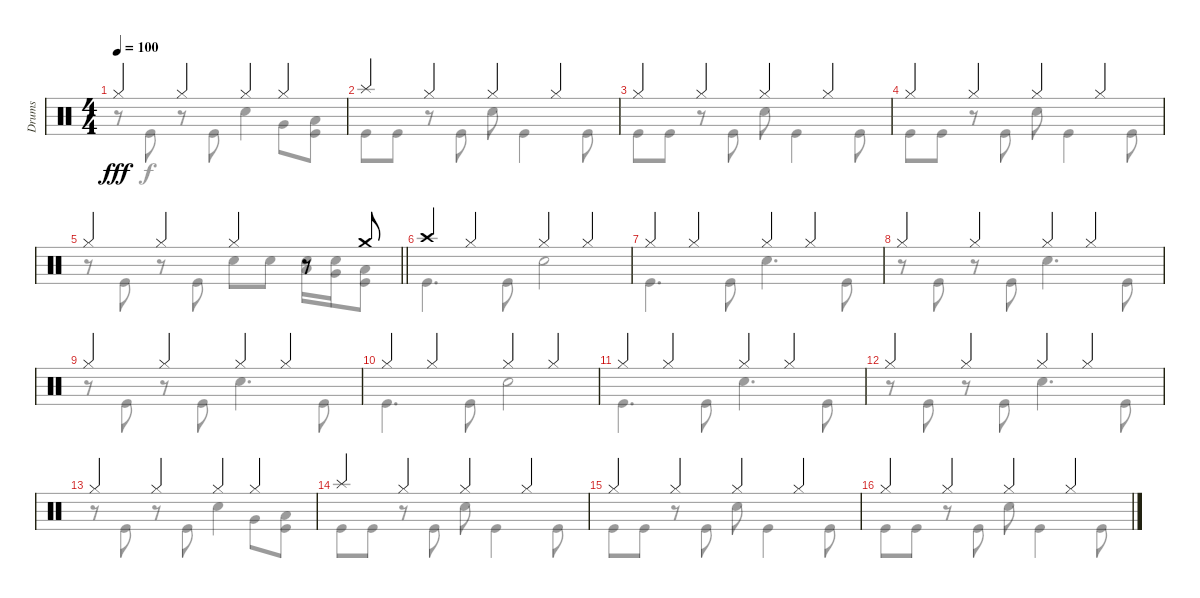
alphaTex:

\track ("Drums" "Drums") {instrument percussion}
\staff {score}
\articulation defaults
\voice
\ts (4 4)
\tempo 100
\clef neutral
\ks c "Hi-Hat (closed)".4{dy fff} "Hi-Hat (closed)".4 "Hi-Hat (closed)".4 "Hi-Hat (closed)".4
|
"Splash (hit)".4 "Hi-Hat (closed)".4 "Hi-Hat (closed)".4 "Hi-Hat (closed)".4 |
"Hi-Hat (closed)".4 "Hi-Hat (closed)".4 "Hi-Hat (closed)".4 "Hi-Hat (closed)".4 |
"Hi-Hat (closed)".4 "Hi-Hat (closed)".4 "Hi-Hat (closed)".4 "Hi-Hat (closed)".4 |
\barLineRight lightlight "Hi-Hat (closed)".4 "Hi-Hat (closed)".4 "Hi-Hat (closed)".4
r.8 "Crash medium (hit)".8 |
"Crash high (hit)".4 "Hi-Hat (closed)".4 "Hi-Hat (closed)".4 "Hi-Hat (closed)".4 |
"Hi-Hat (closed)".4 "Hi-Hat (closed)".4 "Hi-Hat (closed)".4 "Hi-Hat (closed)".4 |
"Hi-Hat (closed)".4 "Hi-Hat (closed)".4 "Hi-Hat (closed)".4 "Hi-Hat (closed)".4 |
"Hi-Hat (closed)".4 "Hi-Hat (closed)".4 "Hi-Hat (closed)".4 "Hi-Hat (closed)".4 |
"Hi-Hat (closed)".4 "Hi-Hat (closed)".4 "Hi-Hat (closed)".4 "Hi-Hat (closed)".4 |
"Hi-Hat (closed)".4 "Hi-Hat (closed)".4 "Hi-Hat (closed)".4 "Hi-Hat (closed)".4 |
"Hi-Hat (closed)".4 "Hi-Hat (closed)".4 "Hi-Hat (closed)".4 "Hi-Hat (closed)".4 |
"Hi-Hat (closed)".4 "Hi-Hat (closed)".4 "Hi-Hat (closed)".4 "Hi-Hat (closed)".4 |
"Splash (hit)".4 "Hi-Hat (closed)".4 "Hi-Hat (closed)".4 "Hi-Hat (closed)".4 |
"Hi-Hat (closed)".4 "Hi-Hat (closed)".4 "Hi-Hat (closed)".4 "Hi-Hat (closed)".4 |
"Hi-Hat (closed)".4 "Hi-Hat (closed)".4 "Hi-Hat (closed)".4 "Hi-Hat (closed)".4
\voice
\clef neutral
\ottava regular
\simile none
\ks c
r.8{dy f} "Kick (hit)".8 r.8 "Kick (hit)".8 "Snare (hit) 2".4 "Very Low Tom (hit)".8 ("Low Floor Tom (hit)" "Kick (hit)").8 |
"Kick (hit)".8 "Kick (hit)".8 r.8 "Kick (hit)".8 "Snare (hit) 2".8 "Kick (hit)".4 "Kick (hit)".8 |
"Kick (hit)".8 "Kick (hit)".8 r.8 "Kick (hit)".8 "Snare (hit) 2".8 "Kick (hit)".4 "Kick (hit)".8 |
"Kick (hit)".8 "Kick (hit)".8 r.8 "Kick (hit)".8 "Snare (hit) 2".8 "Kick (hit)".4 "Kick (hit)".8 |
\barLineRight lightlight
r.8 "Kick (hit)".8 r.8 "Kick (hit)".8 "Snare (hit) 2".8 "Snare (hit) 2".8 ("Snare (hit) 2" "Low Tom (hit)").16 ("Snare (hit) 2" "Very Low Tom (hit)").16 ("Low Floor Tom (hit)" "Kick (hit)").8 |
"Kick (hit)".4{d} "Kick (hit)".8 "Snare (hit) 2".2 |
"Kick (hit)".4{d} "Kick (hit)".8 "Snare (hit) 2".4{d} "Kick (hit)".8 |
r.8 "Kick (hit)".8 r.8 "Kick (hit)".8 "Snare (hit) 2".4{d} "Kick (hit)".8 |
r.8 "Kick (hit)".8 r.8 "Kick (hit)".8 "Snare (hit) 2".4{d} "Kick (hit)".8 |
"Kick (hit)".4{d} "Kick (hit)".8 "Snare (hit) 2".2 |
"Kick (hit)".4{d} "Kick (hit)".8 "Snare (hit) 2".4{d} "Kick (hit)".8 |
r.8 "Kick (hit)".8 r.8 "Kick (hit)".8 "Snare (hit) 2".4{d} "Kick (hit)".8 |
r.8 "Kick (hit)".8 r.8 "Kick (hit)".8 "Snare (hit) 2".4 "Very Low Tom (hit)".8 ("Low Floor Tom (hit)" "Kick (hit)").8 |
"Kick (hit)".8 "Kick (hit)".8 r.8 "Kick (hit)".8 "Snare (hit) 2".8 "Kick (hit)".4 "Kick (hit)".8 |
"Kick (hit)".8 "Kick (hit)".8 r.8 "Kick (hit)".8 "Snare (hit) 2".8 "Kick (hit)".4 "Kick (hit)".8 |
"Kick (hit)".8 "Kick (hit)".8 r.8 "Kick (hit)".8 "Snare (hit) 2".8 "Kick (hit)".4 "Kick (hit)".8
